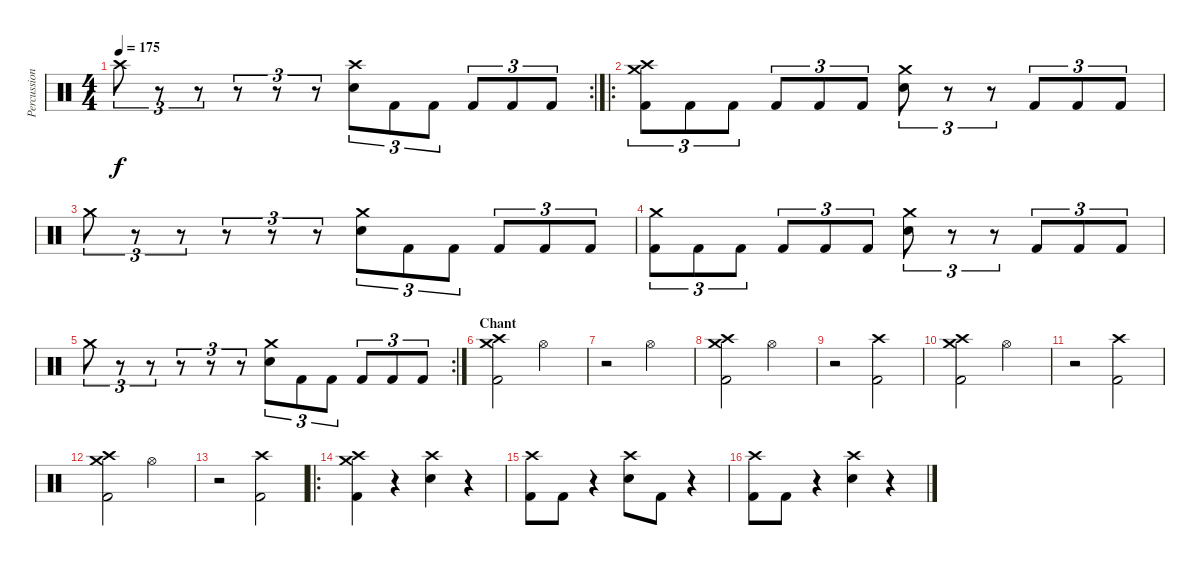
\track ("Percussion" "Percussion") {instrument percussion}
\staff {score}
\articulation defaults
\rc 2
\ts (4 4)
\tempo 175
\clef neutral
\ks c "Crash high (hit)".8{tu (3 2) dy f}
r.8{tu (3 2)} r.8{tu (3 2)} r.8{tu (3 2)} r.8{tu (3 2)} r.8{tu (3 2)} ("Crash high (hit)" "Electric Snare (hit)").8{tu (3 2)} "Kick (hit) 2".8{tu (3 2)} "Kick (hit) 2".8{tu (3 2)} "Kick (hit) 2".8{tu (3 2)} "Kick (hit) 2".8{tu (3 2)} "Kick (hit) 2".8{tu (3 2)} |
\ro
("Crash high (hit)" "Crash medium (hit)" "Kick (hit) 2").8{tu (3 2)} "Kick (hit) 2".8{tu (3 2)} "Kick (hit) 2".8{tu (3 2)} "Kick (hit) 2".8{tu (3 2)} "Kick (hit) 2".8{tu (3 2)} "Kick (hit) 2".8{tu (3 2)} ("Crash medium (hit)" "Electric Snare (hit)").8{tu (3 2)} r.8{tu (3 2)} r.8{tu (3 2)} "Kick (hit) 2".8{tu (3 2)} "Kick (hit) 2".8{tu (3 2)} "Kick (hit) 2".8{tu (3 2)} |
"Crash medium (hit)".8{tu (3 2)} r.8{tu (3 2)} r.8{tu (3 2)} r.8{tu (3 2)} r.8{tu (3 2)} r.8{tu (3 2)} ("Crash medium (hit)" "Electric Snare (hit)").8{tu (3 2)} "Kick (hit) 2".8{tu (3 2)} "Kick (hit) 2".8{tu (3 2)} "Kick (hit) 2".8{tu (3 2)} "Kick (hit) 2".8{tu (3 2)} "Kick (hit) 2".8{tu (3 2)} |
("Crash medium (hit)" "Kick (hit) 2").8{tu (3 2)} "Kick (hit) 2".8{tu (3 2)} "Kick (hit) 2".8{tu (3 2)} "Kick (hit) 2".8{tu (3 2)} "Kick (hit) 2".8{tu (3 2)} "Kick (hit) 2".8{tu (3 2)} ("Crash medium (hit)" "Electric Snare (hit)").8{tu (3 2)} r.8{tu (3 2)} r.8{tu (3 2)} "Kick (hit) 2".8{tu (3 2)} "Kick (hit) 2".8{tu (3 2)} "Kick (hit) 2".8{tu (3 2)} |
\rc 2 "Crash medium (hit)".8{tu (3 2)}
r.8{tu (3 2)} r.8{tu (3 2)} r.8{tu (3 2)} r.8{tu (3 2)} r.8{tu (3 2)} ("Crash medium (hit)" "Electric Snare (hit)").8{tu (3 2)} "Kick (hit) 2".8{tu (3 2)} "Kick (hit) 2".8{tu (3 2)} "Kick (hit) 2".8{tu (3 2)} "Kick (hit) 2".8{tu (3 2)} "Kick (hit) 2".8{tu (3 2)} |
\section ("" "Chant")
("Crash high (hit)" "Crash medium (hit)" "Kick (hit) 2").2 "Hi-Hat (open)".2 |
r.2 "Hi-Hat (open)".2 |
("Crash high (hit)" "Crash medium (hit)" "Kick (hit) 2").2 "Hi-Hat (open)".2 |
r.2 ("Crash high (hit)" "Kick (hit) 2").2 |
("Crash high (hit)" "Crash medium (hit)" "Kick (hit) 2").2 "Hi-Hat (open)".2 |
r.2 ("Crash high (hit)" "Kick (hit) 2").2 |
("Crash high (hit)" "Crash medium (hit)" "Kick (hit) 2").2 "Hi-Hat (open)".2 |
r.2 ("Crash high (hit)" "Kick (hit) 2").2 |
\ro
("Crash high (hit)" "Crash medium (hit)" "Kick (hit) 2").4 r.4 ("Crash high (hit)" "Electric Snare (hit)").4 r.4 |
("Crash high (hit)" "Kick (hit) 2").8 "Kick (hit) 2".8 r.4 ("Crash high (hit)" "Electric Snare (hit)").8 "Kick (hit) 2".8 r.4 |
("Crash high (hit)" "Kick (hit) 2").8 "Kick (hit) 2".8 r.4 ("Crash high (hit)" "Electric Snare (hit)").4 r.4
